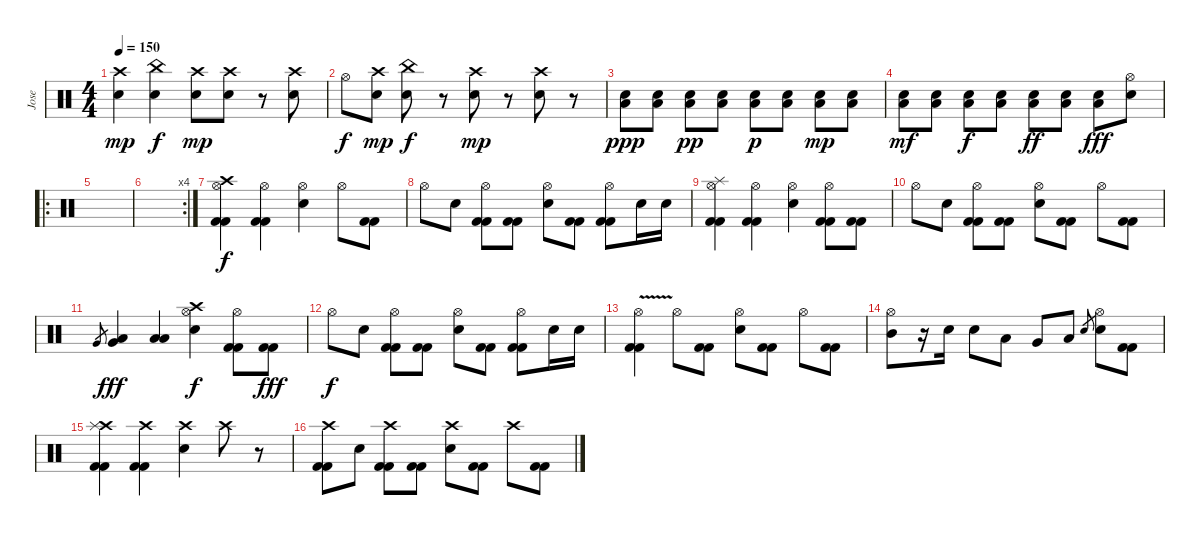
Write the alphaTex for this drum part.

\track ("Jose" "Jose") {instrument percussion}
\staff {score}
\articulation defaults
\ts (4 4)
\tempo 150
\clef neutral
\ks c
("Crash high (hit)" "Electric Snare (hit)").4{dy mp} ("China (hit)" "Electric Snare (hit)").4{dy f} ("Crash high (hit)" "Electric Snare (hit)").8{dy mp} ("Crash high (hit)" "Electric Snare (hit)").8 r.8 ("Crash high (hit)" "Electric Snare (hit)").8 |
"Hi-Hat (open)".8{dy f} ("Crash high (hit)" "Electric Snare (hit)").8{dy mp} ("China (hit)" "Electric Snare (hit)").8{dy f} r.8 ("Crash high (hit)" "Electric Snare (hit)").8{dy mp} r.8 ("Crash high (hit)" "Electric Snare (hit)").8 r.8 |
("Electric Snare (hit)" "Low Floor Tom (hit)").8{dy ppp} ("Electric Snare (hit)" "Low Floor Tom (hit)").8 ("Electric Snare (hit)" "Low Floor Tom (hit)").8{dy pp} ("Electric Snare (hit)" "Low Floor Tom (hit)").8 ("Electric Snare (hit)" "Low Floor Tom (hit)").8{dy p} ("Electric Snare (hit)" "Low Floor Tom (hit)").8 ("Electric Snare (hit)" "Low Floor Tom (hit)").8{dy mp} ("Electric Snare (hit)" "Low Floor Tom (hit)").8 |
("Electric Snare (hit)" "Low Floor Tom (hit)").8{dy mf} ("Electric Snare (hit)" "Low Floor Tom (hit)").8 ("Electric Snare (hit)" "Low Floor Tom (hit)").8{dy f} ("Electric Snare (hit)" "Low Floor Tom (hit)").8 ("Electric Snare (hit)" "Low Floor Tom (hit)").8{dy ff} ("Electric Snare (hit)" "Low Floor Tom (hit)").8 ("Electric Snare (hit)" "Low Floor Tom (hit)").8{dy fff} ("Hi-Hat (open)" "Electric Snare (hit)").8 |
\ro
|
\rc 4
|
("Hi-Hat (open)" "Crash high (hit)" "Kick (hit) 2" "Kick (hit) 2").4{dy f} ("Hi-Hat (open)" "Kick (hit) 2" "Kick (hit) 2").4 ("Hi-Hat (open)" "Electric Snare (hit)").4 "Hi-Hat (open)".8 ("Kick (hit) 2" "Kick (hit) 2").8 |
"Hi-Hat (open)".8 "Electric Snare (hit)".8 ("Hi-Hat (open)" "Kick (hit) 2" "Kick (hit) 2").8 ("Kick (hit) 2" "Kick (hit) 2").8 ("Hi-Hat (open)" "Electric Snare (hit)").8 ("Kick (hit) 2" "Kick (hit) 2").8 ("Hi-Hat (open)" "Kick (hit) 2" "Kick (hit) 2").8 "Electric Snare (hit)".16 "Electric Snare (hit)".16 |
("Hi-Hat (open)" "Splash (hit)" "Kick (hit) 2" "Kick (hit) 2").4 ("Hi-Hat (open)" "Kick (hit) 2" "Kick (hit) 2").4 ("Hi-Hat (open)" "Electric Snare (hit)").4 ("Hi-Hat (open)" "Kick (hit) 2" "Kick (hit) 2").8 ("Kick (hit) 2" "Kick (hit) 2").8 |
"Hi-Hat (open)".8 "Electric Snare (hit)".8 ("Hi-Hat (open)" "Kick (hit) 2" "Kick (hit) 2").8 ("Kick (hit) 2" "Kick (hit) 2").8 ("Hi-Hat (open)" "Electric Snare (hit)").8 ("Kick (hit) 2" "Kick (hit) 2").8 "Hi-Hat (open)".8 ("Kick (hit) 2" "Kick (hit) 2").8 |
"Very Low Tom (hit)".8{gr} ("Low Tom (hit)" "Very Low Tom (hit)").4{dy fff} ("Low Tom (hit)" "Low Floor Tom (hit)").4 ("Hi-Hat (open)" "Crash high (hit)" "Electric Snare (hit)").4{dy f} ("Hi-Hat (open)" "Kick (hit) 2" "Kick (hit) 2").8 ("Kick (hit) 2" "Kick (hit) 2").8{dy fff} |
"Hi-Hat (open)".8{dy f} "Electric Snare (hit)".8 ("Hi-Hat (open)" "Kick (hit) 2" "Kick (hit) 2").8 ("Kick (hit) 2" "Kick (hit) 2").8 ("Hi-Hat (open)" "Electric Snare (hit)").8 ("Kick (hit) 2" "Kick (hit) 2").8 ("Hi-Hat (open)" "Kick (hit) 2" "Kick (hit) 2").8 "Electric Snare (hit)".16 "Electric Snare (hit)".16 |
("Hi-Hat (open)"{v} "Kick (hit) 2"{v} "Kick (hit) 2"{v}).4 "Hi-Hat (open)".8 ("Kick (hit) 2" "Kick (hit) 2").8 ("Hi-Hat (open)" "Electric Snare (hit)").8 ("Kick (hit) 2" "Kick (hit) 2").8 "Hi-Hat (open)".8 ("Kick (hit) 2" "Kick (hit) 2").8 |
("Hi-Hat (open)" "Mid Tom (hit)").8 r.16 "Electric Snare (hit)".16 "Electric Snare (hit)".8 "Low Tom (hit)".8 "Very Low Tom (hit)".8 "Low Floor Tom (hit)".8 "Electric Snare (hit)".8{gr} ("Hi-Hat (open)" "Electric Snare (hit)").8 ("Kick (hit) 2" "Kick (hit) 2").8 |
("Crash high (hit)" "Splash (hit)" "Kick (hit) 2" "Kick (hit) 2").4 ("Crash high (hit)" "Kick (hit) 2" "Kick (hit) 2").4 ("Crash high (hit)" "Electric Snare (hit)").4 "Crash high (hit)".8 r.8 |
("Crash high (hit)" "Kick (hit) 2" "Kick (hit) 2").8 "Electric Snare (hit)".8 ("Crash high (hit)" "Kick (hit) 2" "Kick (hit) 2").8 ("Kick (hit) 2" "Kick (hit) 2").8 ("Crash high (hit)" "Electric Snare (hit)").8 ("Kick (hit) 2" "Kick (hit) 2").8 "Crash high (hit)".8 ("Kick (hit) 2" "Kick (hit) 2").8
